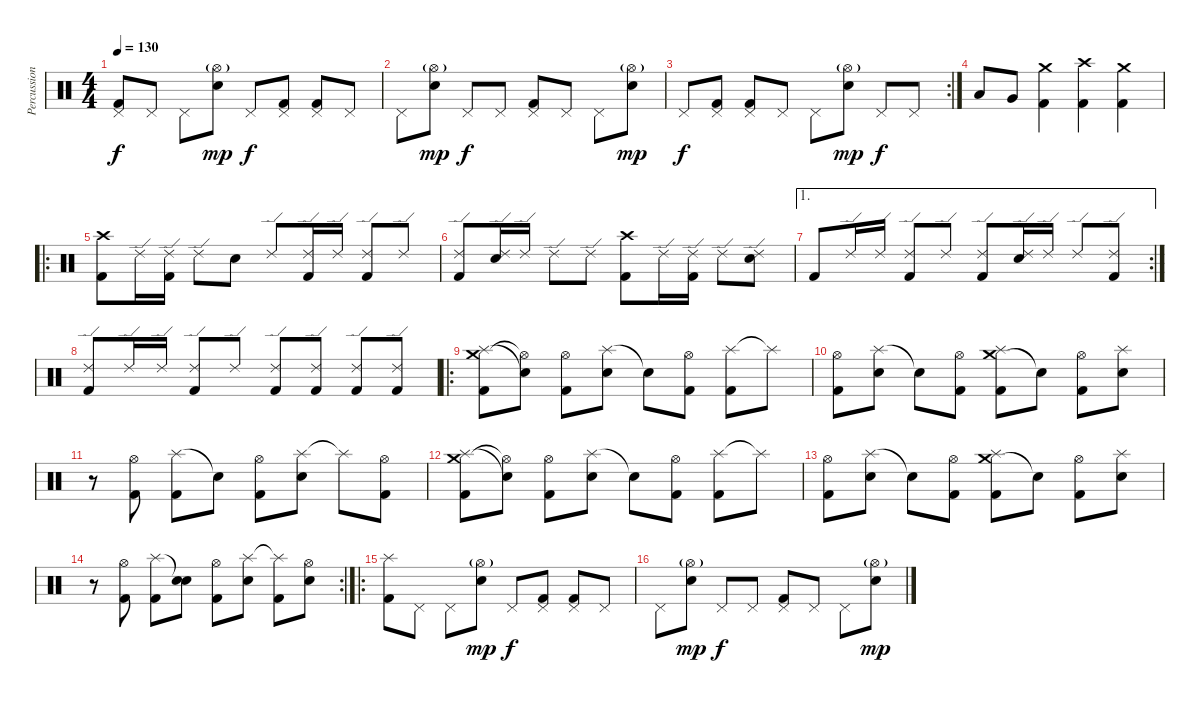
\track ("Percussion" "Percussion") {instrument percussion}
\staff {score}
\articulation defaults
\ts (4 4)
\tempo 130
\clef neutral
\ks c
("Pedal Hi-Hat (hit)" "Kick (hit) 2").8{dy f} "Pedal Hi-Hat (hit)".8 "Pedal Hi-Hat (hit)".8 ("Hi-Hat (open)"{g} "Electric Snare (hit)").8{dy mp} "Pedal Hi-Hat (hit)".8{dy f} ("Pedal Hi-Hat (hit)" "Kick (hit) 2").8 ("Pedal Hi-Hat (hit)" "Kick (hit) 2").8 "Pedal Hi-Hat (hit)".8 |
"Pedal Hi-Hat (hit)".8 ("Hi-Hat (open)"{g} "Electric Snare (hit)").8{dy mp} "Pedal Hi-Hat (hit)".8{dy f} "Pedal Hi-Hat (hit)".8 ("Pedal Hi-Hat (hit)" "Kick (hit) 2").8 "Pedal Hi-Hat (hit)".8 "Pedal Hi-Hat (hit)".8 ("Hi-Hat (open)"{g} "Electric Snare (hit)").8{dy mp} |
\rc 2 "Pedal Hi-Hat (hit)".8{dy f}
("Pedal Hi-Hat (hit)" "Kick (hit) 2").8 ("Pedal Hi-Hat (hit)" "Kick (hit) 2").8 "Pedal Hi-Hat (hit)".8 "Pedal Hi-Hat (hit)".8 ("Hi-Hat (open)"{g} "Electric Snare (hit)").8{dy mp} "Pedal Hi-Hat (hit)".8{dy f} "Pedal Hi-Hat (hit)".8 |
"Low Tom (hit)".8 "Very Low Tom (hit)".8 ("Crash medium (hit)" "Kick (hit) 2").4 ("Crash high (hit)" "Kick (hit) 2").4 ("Crash medium (hit)" "Kick (hit) 2").4 |
\ro
("Crash high (hit)" "Kick (hit) 2").8 "Ride (edge) 2".16 ("Ride (edge) 2" "Kick (hit) 2").16 "Ride (edge) 2".8 "Electric Snare (hit)".8 "Ride (edge) 2".8 ("Ride (edge) 2" "Kick (hit) 2").16 "Ride (edge) 2".16 ("Ride (edge) 2" "Kick (hit) 2").8 "Ride (edge) 2".8 |
("Ride (edge) 2" "Kick (hit) 2").8 ("Ride (edge) 2" "Electric Snare (hit)").16 "Ride (edge) 2".16 "Ride (edge) 2".8 "Ride (edge) 2".8 ("Crash high (hit)" "Kick (hit) 2").8 "Ride (edge) 2".16 ("Ride (edge) 2" "Kick (hit) 2").16 "Ride (edge) 2".8 ("Ride (edge) 2" "Electric Snare (hit)").8 |
\ae 1
\rc 2 "Kick (hit) 2".8 "Ride (edge) 2".16 "Ride (edge) 2".16
("Ride (edge) 2" "Kick (hit) 2").8 "Ride (edge) 2".8 ("Ride (edge) 2" "Kick (hit) 2").8 ("Ride (edge) 2" "Electric Snare (hit)").16 "Ride (edge) 2".16 "Ride (edge) 2".8 ("Ride (edge) 2" "Kick (hit) 2").8 |
("Ride (edge) 2" "Kick (hit) 2").8 "Ride (edge) 2".16 "Ride (edge) 2".16 ("Ride (edge) 2" "Kick (hit) 2").8 "Ride (edge) 2".8 ("Ride (edge) 2" "Kick (hit) 2").8 ("Ride (edge) 2" "Kick (hit) 2").8 ("Ride (edge) 2" "Kick (hit) 2").8 ("Ride (edge) 2" "Kick (hit) 2").8 |
\ro
("Crash medium (hit)" "Splash (hit)" "Kick (hit) 2").8 ("Hi-Hat (open)"{t} "Snare (hit)"{t}).8 ("Hi-Hat (open)" "Kick (hit) 2").8 ("Splash (hit)" "Electric Snare (hit)").8 "Snare (hit)"{t}.8 ("Hi-Hat (open)" "Kick (hit) 2").8 ("Splash (hit)" "Kick (hit) 2").8 "Splash (hit)"{t}.8 |
("Hi-Hat (open)" "Kick (hit) 2").8 ("Splash (hit)" "Electric Snare (hit)").8 "Snare (hit)"{t}.8 ("Hi-Hat (open)" "Kick (hit) 2").8 ("Crash medium (hit)" "Splash (hit)" "Kick (hit) 2").8 "Snare (hit)"{t}.8 ("Hi-Hat (open)" "Kick (hit) 2").8 ("Splash (hit)" "Electric Snare (hit)").8 |
r.8 ("Hi-Hat (open)" "Kick (hit) 2").8 ("Splash (hit)" "Kick (hit) 2").8 "Snare (hit)"{t}.8 ("Hi-Hat (open)" "Kick (hit) 2").8 ("Splash (hit)" "Electric Snare (hit)").8 "Splash (hit)"{t}.8 ("Hi-Hat (open)" "Kick (hit) 2").8 |
("Crash medium (hit)" "Splash (hit)" "Kick (hit) 2").8 ("Hi-Hat (open)"{t} "Snare (hit)"{t}).8 ("Hi-Hat (open)" "Kick (hit) 2").8 ("Splash (hit)" "Electric Snare (hit)").8 "Snare (hit)"{t}.8 ("Hi-Hat (open)" "Kick (hit) 2").8 ("Splash (hit)" "Kick (hit) 2").8 "Splash (hit)"{t}.8 |
("Hi-Hat (open)" "Kick (hit) 2").8 ("Splash (hit)" "Electric Snare (hit)").8 "Snare (hit)"{t}.8 ("Hi-Hat (open)" "Kick (hit) 2").8 ("Crash medium (hit)" "Splash (hit)" "Kick (hit) 2").8 "Snare (hit)"{t}.8 ("Hi-Hat (open)" "Kick (hit) 2").8 ("Splash (hit)" "Electric Snare (hit)").8 |
\rc 2
r.8 ("Hi-Hat (open)" "Kick (hit) 2").8 ("Splash (hit)" "Kick (hit) 2").8 ("Snare (hit)"{t} "Electric Snare (hit)").8 ("Hi-Hat (open)" "Kick (hit) 2").8 ("Splash (hit)" "Electric Snare (hit)").8 ("Splash (hit)"{t} "Kick (hit) 2").8 ("Hi-Hat (open)" "Electric Snare (hit)").8 |
\ro
("Splash (hit)" "Kick (hit) 2").8 "Pedal Hi-Hat (hit)".8 "Pedal Hi-Hat (hit)".8 ("Hi-Hat (open)"{g} "Electric Snare (hit)").8{dy mp} "Pedal Hi-Hat (hit)".8{dy f} ("Pedal Hi-Hat (hit)" "Kick (hit) 2").8 ("Pedal Hi-Hat (hit)" "Kick (hit) 2").8 "Pedal Hi-Hat (hit)".8 |
"Pedal Hi-Hat (hit)".8 ("Hi-Hat (open)"{g} "Electric Snare (hit)").8{dy mp} "Pedal Hi-Hat (hit)".8{dy f} "Pedal Hi-Hat (hit)".8 ("Pedal Hi-Hat (hit)" "Kick (hit) 2").8 "Pedal Hi-Hat (hit)".8 "Pedal Hi-Hat (hit)".8 ("Hi-Hat (open)"{g} "Electric Snare (hit)").8{dy mp}
